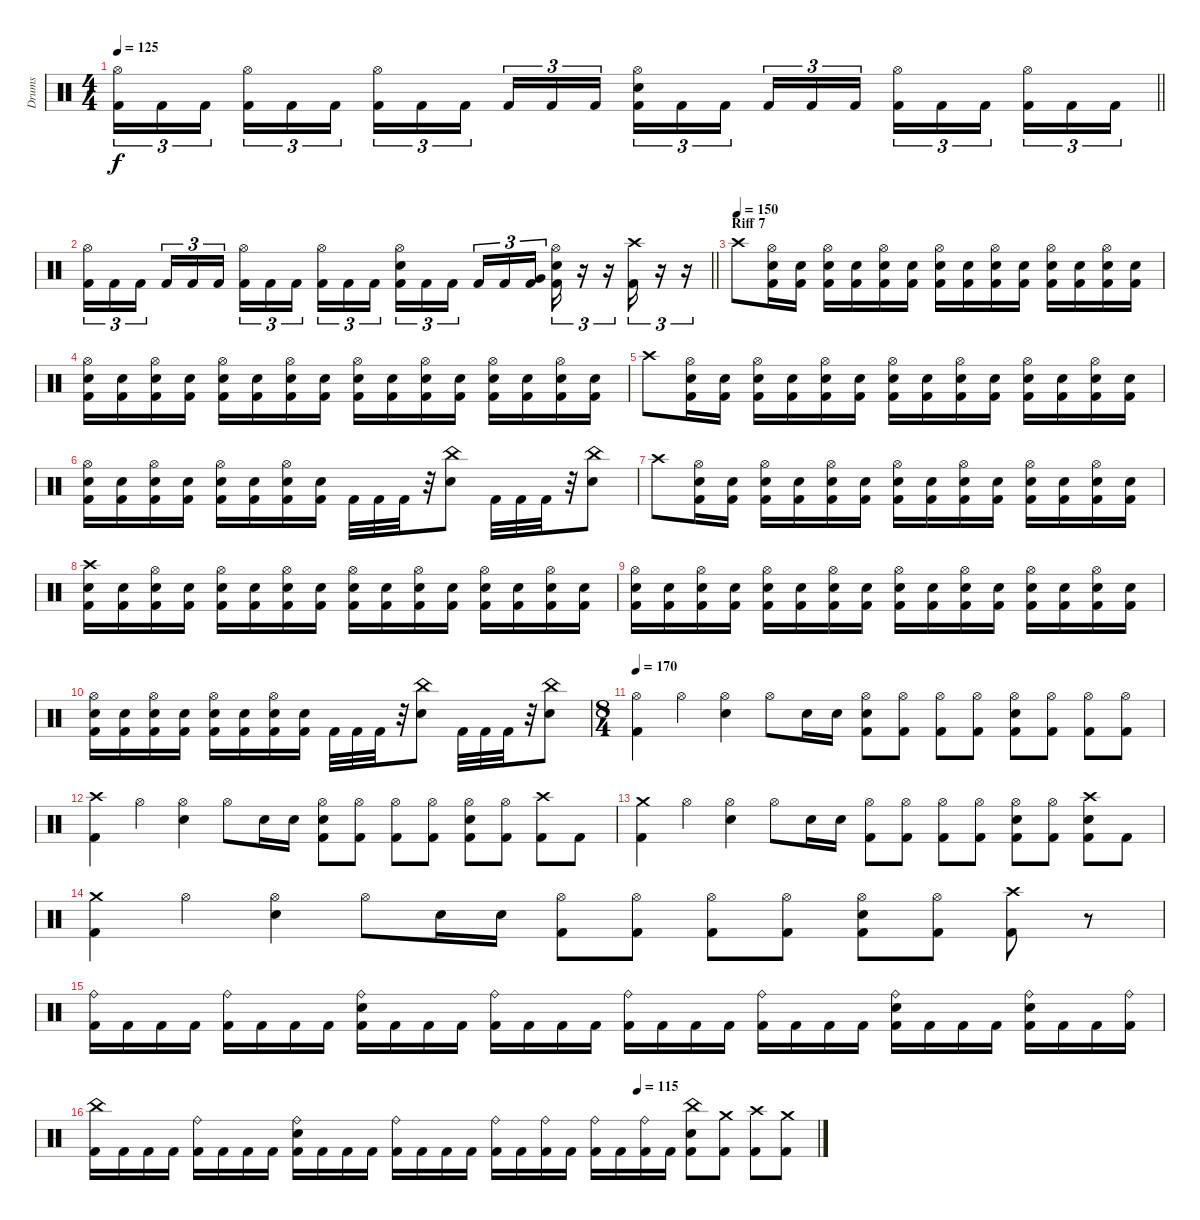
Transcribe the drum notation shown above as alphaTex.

\track ("Drums" "Drums") {instrument percussion}
\staff {score}
\articulation defaults
\ts (4 4)
\tempo 125
\clef neutral
\barLineRight lightlight
\ks c
("Hi-Hat (open)" "Kick (hit) 2").16{tu (3 2) dy f} "Kick (hit) 2".16{tu (3 2)} "Kick (hit) 2".16{tu (3 2) beam splitsecondary} ("Hi-Hat (open)" "Kick (hit) 2").16{tu (3 2)} "Kick (hit) 2".16{tu (3 2)} "Kick (hit) 2".16{tu (3 2)} ("Hi-Hat (open)" "Kick (hit) 2").16{tu (3 2)} "Kick (hit) 2".16{tu (3 2)} "Kick (hit) 2".16{tu (3 2) beam splitsecondary} "Kick (hit) 2".16{tu (3 2)} "Kick (hit) 2".16{tu (3 2)} "Kick (hit) 2".16{tu (3 2)} ("Hi-Hat (open)" "Snare (hit) 2" "Kick (hit) 2").16{tu (3 2)} "Kick (hit) 2".16{tu (3 2)} "Kick (hit) 2".16{tu (3 2) beam splitsecondary} "Kick (hit) 2".16{tu (3 2)} "Kick (hit) 2".16{tu (3 2)} "Kick (hit) 2".16{tu (3 2)} ("Hi-Hat (open)" "Kick (hit) 2").16{tu (3 2)} "Kick (hit) 2".16{tu (3 2)} "Kick (hit) 2".16{tu (3 2) beam splitsecondary} ("Hi-Hat (open)" "Kick (hit) 2").16{tu (3 2)} "Kick (hit) 2".16{tu (3 2)} "Kick (hit) 2".16{tu (3 2)} |
\barLineRight lightlight
("Hi-Hat (open)" "Kick (hit) 2").16{tu (3 2)} "Kick (hit) 2".16{tu (3 2)} "Kick (hit) 2".16{tu (3 2) beam splitsecondary} "Kick (hit) 2".16{tu (3 2)} "Kick (hit) 2".16{tu (3 2)} "Kick (hit) 2".16{tu (3 2)} ("Hi-Hat (open)" "Kick (hit) 2").16{tu (3 2)} "Kick (hit) 2".16{tu (3 2)} "Kick (hit) 2".16{tu (3 2) beam splitsecondary} ("Hi-Hat (open)" "Kick (hit) 2").16{tu (3 2)} "Kick (hit) 2".16{tu (3 2)} "Kick (hit) 2".16{tu (3 2)} ("Hi-Hat (open)" "Snare (hit) 2" "Kick (hit) 2").16{tu (3 2)} "Kick (hit) 2".16{tu (3 2)} "Kick (hit) 2".16{tu (3 2) beam splitsecondary} "Kick (hit) 2".16{tu (3 2)} "Kick (hit) 2".16{tu (3 2)} ("Very Low Tom (hit)" "Kick (hit) 2").16{tu (3 2)} ("Hi-Hat (open)" "Snare (hit) 2" "Kick (hit) 2").16{tu (3 2)} r.16{tu (3 2)} r.16{tu (3 2)} ("Crash high (hit)" "Kick (hit) 2").16{tu (3 2)} r.16{tu (3 2)} r.16{tu (3 2)} |
\section ("" "Riff 7")
\tempo (150)
"Crash high (hit)".8 ("Hi-Hat (open)" "Snare (hit) 2" "Kick (hit) 2").16 ("Snare (hit) 2" "Kick (hit) 2").16 ("Hi-Hat (open)" "Snare (hit) 2" "Kick (hit) 2").16 ("Snare (hit) 2" "Kick (hit) 2").16 ("Hi-Hat (open)" "Snare (hit) 2" "Kick (hit) 2").16 ("Snare (hit) 2" "Kick (hit) 2").16 ("Hi-Hat (open)" "Snare (hit) 2" "Kick (hit) 2").16 ("Snare (hit) 2" "Kick (hit) 2").16 ("Hi-Hat (open)" "Snare (hit) 2" "Kick (hit) 2").16 ("Snare (hit) 2" "Kick (hit) 2").16 ("Hi-Hat (open)" "Snare (hit) 2" "Kick (hit) 2").16 ("Snare (hit) 2" "Kick (hit) 2").16 ("Hi-Hat (open)" "Snare (hit) 2" "Kick (hit) 2").16 ("Snare (hit) 2" "Kick (hit) 2").16 |
("Hi-Hat (open)" "Snare (hit) 2" "Kick (hit) 2").16 ("Snare (hit) 2" "Kick (hit) 2").16 ("Hi-Hat (open)" "Snare (hit) 2" "Kick (hit) 2").16 ("Snare (hit) 2" "Kick (hit) 2").16 ("Hi-Hat (open)" "Snare (hit) 2" "Kick (hit) 2").16 ("Snare (hit) 2" "Kick (hit) 2").16 ("Hi-Hat (open)" "Snare (hit) 2" "Kick (hit) 2").16 ("Snare (hit) 2" "Kick (hit) 2").16 ("Hi-Hat (open)" "Snare (hit) 2" "Kick (hit) 2").16 ("Snare (hit) 2" "Kick (hit) 2").16 ("Hi-Hat (open)" "Snare (hit) 2" "Kick (hit) 2").16 ("Snare (hit) 2" "Kick (hit) 2").16 ("Hi-Hat (open)" "Snare (hit) 2" "Kick (hit) 2").16 ("Snare (hit) 2" "Kick (hit) 2").16 ("Hi-Hat (open)" "Snare (hit) 2" "Kick (hit) 2").16 ("Snare (hit) 2" "Kick (hit) 2").16 |
"Crash high (hit)".8 ("Hi-Hat (open)" "Snare (hit) 2" "Kick (hit) 2").16 ("Snare (hit) 2" "Kick (hit) 2").16 ("Hi-Hat (open)" "Snare (hit) 2" "Kick (hit) 2").16 ("Snare (hit) 2" "Kick (hit) 2").16 ("Hi-Hat (open)" "Snare (hit) 2" "Kick (hit) 2").16 ("Snare (hit) 2" "Kick (hit) 2").16 ("Hi-Hat (open)" "Snare (hit) 2" "Kick (hit) 2").16 ("Snare (hit) 2" "Kick (hit) 2").16 ("Hi-Hat (open)" "Snare (hit) 2" "Kick (hit) 2").16 ("Snare (hit) 2" "Kick (hit) 2").16 ("Hi-Hat (open)" "Snare (hit) 2" "Kick (hit) 2").16 ("Snare (hit) 2" "Kick (hit) 2").16 ("Hi-Hat (open)" "Snare (hit) 2" "Kick (hit) 2").16 ("Snare (hit) 2" "Kick (hit) 2").16 |
("Hi-Hat (open)" "Snare (hit) 2" "Kick (hit) 2").16 ("Snare (hit) 2" "Kick (hit) 2").16 ("Hi-Hat (open)" "Snare (hit) 2" "Kick (hit) 2").16 ("Snare (hit) 2" "Kick (hit) 2").16 ("Hi-Hat (open)" "Snare (hit) 2" "Kick (hit) 2").16 ("Snare (hit) 2" "Kick (hit) 2").16 ("Hi-Hat (open)" "Snare (hit) 2" "Kick (hit) 2").16 ("Snare (hit) 2" "Kick (hit) 2").16 "Kick (hit) 2".32 "Kick (hit) 2".32 "Kick (hit) 2".32 r.32 ("China (hit)" "Snare (hit) 2").8 "Kick (hit) 2".32 "Kick (hit) 2".32 "Kick (hit) 2".32 r.32 ("China (hit)" "Snare (hit) 2").8 |
"Crash high (hit)".8 ("Hi-Hat (open)" "Snare (hit) 2" "Kick (hit) 2").16 ("Snare (hit) 2" "Kick (hit) 2").16 ("Hi-Hat (open)" "Snare (hit) 2" "Kick (hit) 2").16 ("Snare (hit) 2" "Kick (hit) 2").16 ("Hi-Hat (open)" "Snare (hit) 2" "Kick (hit) 2").16 ("Snare (hit) 2" "Kick (hit) 2").16 ("Hi-Hat (open)" "Snare (hit) 2" "Kick (hit) 2").16 ("Snare (hit) 2" "Kick (hit) 2").16 ("Hi-Hat (open)" "Snare (hit) 2" "Kick (hit) 2").16 ("Snare (hit) 2" "Kick (hit) 2").16 ("Hi-Hat (open)" "Snare (hit) 2" "Kick (hit) 2").16 ("Snare (hit) 2" "Kick (hit) 2").16 ("Hi-Hat (open)" "Snare (hit) 2" "Kick (hit) 2").16 ("Snare (hit) 2" "Kick (hit) 2").16 |
("Crash high (hit)" "Snare (hit) 2" "Kick (hit) 2").16 ("Snare (hit) 2" "Kick (hit) 2").16 ("Hi-Hat (open)" "Snare (hit) 2" "Kick (hit) 2").16 ("Snare (hit) 2" "Kick (hit) 2").16 ("Hi-Hat (open)" "Snare (hit) 2" "Kick (hit) 2").16 ("Snare (hit) 2" "Kick (hit) 2").16 ("Hi-Hat (open)" "Snare (hit) 2" "Kick (hit) 2").16 ("Snare (hit) 2" "Kick (hit) 2").16 ("Hi-Hat (open)" "Snare (hit) 2" "Kick (hit) 2").16 ("Snare (hit) 2" "Kick (hit) 2").16 ("Hi-Hat (open)" "Snare (hit) 2" "Kick (hit) 2").16 ("Snare (hit) 2" "Kick (hit) 2").16 ("Hi-Hat (open)" "Snare (hit) 2" "Kick (hit) 2").16 ("Snare (hit) 2" "Kick (hit) 2").16 ("Hi-Hat (open)" "Snare (hit) 2" "Kick (hit) 2").16 ("Snare (hit) 2" "Kick (hit) 2").16 |
("Hi-Hat (open)" "Snare (hit) 2" "Kick (hit) 2").16 ("Snare (hit) 2" "Kick (hit) 2").16 ("Hi-Hat (open)" "Snare (hit) 2" "Kick (hit) 2").16 ("Snare (hit) 2" "Kick (hit) 2").16 ("Hi-Hat (open)" "Snare (hit) 2" "Kick (hit) 2").16 ("Snare (hit) 2" "Kick (hit) 2").16 ("Hi-Hat (open)" "Snare (hit) 2" "Kick (hit) 2").16 ("Snare (hit) 2" "Kick (hit) 2").16 ("Hi-Hat (open)" "Snare (hit) 2" "Kick (hit) 2").16 ("Snare (hit) 2" "Kick (hit) 2").16 ("Hi-Hat (open)" "Snare (hit) 2" "Kick (hit) 2").16 ("Snare (hit) 2" "Kick (hit) 2").16 ("Hi-Hat (open)" "Snare (hit) 2" "Kick (hit) 2").16 ("Snare (hit) 2" "Kick (hit) 2").16 ("Hi-Hat (open)" "Snare (hit) 2" "Kick (hit) 2").16 ("Snare (hit) 2" "Kick (hit) 2").16 |
("Hi-Hat (open)" "Snare (hit) 2" "Kick (hit) 2").16 ("Snare (hit) 2" "Kick (hit) 2").16 ("Hi-Hat (open)" "Snare (hit) 2" "Kick (hit) 2").16 ("Snare (hit) 2" "Kick (hit) 2").16 ("Hi-Hat (open)" "Snare (hit) 2" "Kick (hit) 2").16 ("Snare (hit) 2" "Kick (hit) 2").16 ("Hi-Hat (open)" "Snare (hit) 2" "Kick (hit) 2").16 ("Snare (hit) 2" "Kick (hit) 2").16 "Kick (hit) 2".32 "Kick (hit) 2".32 "Kick (hit) 2".32 r.32 ("China (hit)" "Snare (hit) 2").8 "Kick (hit) 2".32 "Kick (hit) 2".32 "Kick (hit) 2".32 r.32 ("China (hit)" "Snare (hit) 2").8 |
\ts (8 4)
\tempo 170
("Hi-Hat (open)" "Kick (hit) 2").4 "Hi-Hat (open)".4 ("Hi-Hat (open)" "Snare (hit) 2").4 "Hi-Hat (open)".8 "Snare (hit) 2".16 "Snare (hit) 2".16 ("Hi-Hat (open)" "Snare (hit) 2" "Kick (hit) 2").8 ("Hi-Hat (open)" "Kick (hit) 2").8 ("Hi-Hat (open)" "Kick (hit) 2").8 ("Hi-Hat (open)" "Kick (hit) 2").8 ("Hi-Hat (open)" "Snare (hit) 2" "Kick (hit) 2").8 ("Hi-Hat (open)" "Kick (hit) 2").8 ("Hi-Hat (open)" "Kick (hit) 2").8 ("Hi-Hat (open)" "Kick (hit) 2").8 |
("Crash high (hit)" "Kick (hit) 2").4 "Hi-Hat (open)".4 ("Hi-Hat (open)" "Snare (hit) 2").4 "Hi-Hat (open)".8 "Snare (hit) 2".16 "Snare (hit) 2".16 ("Hi-Hat (open)" "Snare (hit) 2" "Kick (hit) 2").8 ("Hi-Hat (open)" "Kick (hit) 2").8 ("Hi-Hat (open)" "Kick (hit) 2").8 ("Hi-Hat (open)" "Kick (hit) 2").8 ("Hi-Hat (open)" "Snare (hit) 2" "Kick (hit) 2").8 ("Hi-Hat (open)" "Kick (hit) 2").8 ("Crash high (hit)" "Kick (hit) 2").8 "Kick (hit) 2".8 |
("Crash medium (hit)" "Kick (hit) 2").4 "Hi-Hat (open)".4 ("Hi-Hat (open)" "Snare (hit) 2").4 "Hi-Hat (open)".8 "Snare (hit) 2".16 "Snare (hit) 2".16 ("Hi-Hat (open)" "Kick (hit) 2").8 ("Hi-Hat (open)" "Kick (hit) 2").8 ("Hi-Hat (open)" "Kick (hit) 2").8 ("Hi-Hat (open)" "Kick (hit) 2").8 ("Hi-Hat (open)" "Snare (hit) 2" "Kick (hit) 2").8 ("Hi-Hat (open)" "Kick (hit) 2").8 ("Crash high (hit)" "Snare (hit) 2" "Kick (hit) 2").8 "Kick (hit) 2".8 |
("Crash medium (hit)" "Kick (hit) 2").4 "Hi-Hat (open)".4 ("Hi-Hat (open)" "Snare (hit) 2").4 "Hi-Hat (open)".8 "Snare (hit) 2".16 "Snare (hit) 2".16 ("Hi-Hat (open)" "Kick (hit) 2").8 ("Hi-Hat (open)" "Kick (hit) 2").8 ("Hi-Hat (open)" "Kick (hit) 2").8 ("Hi-Hat (open)" "Kick (hit) 2").8 ("Hi-Hat (open)" "Snare (hit) 2" "Kick (hit) 2").8 ("Hi-Hat (open)" "Kick (hit) 2").8 ("Crash high (hit)" "Kick (hit) 2").8 r.8 |
("Ride (bell)" "Kick (hit) 2").16 "Kick (hit) 2".16 "Kick (hit) 2".16 "Kick (hit) 2".16 ("Ride (bell)" "Kick (hit) 2").16 "Kick (hit) 2".16 "Kick (hit) 2".16 "Kick (hit) 2".16 ("Ride (bell)" "Snare (hit) 2" "Kick (hit) 2").16 "Kick (hit) 2".16 "Kick (hit) 2".16 "Kick (hit) 2".16 ("Ride (bell)" "Kick (hit) 2").16 "Kick (hit) 2".16 "Kick (hit) 2".16 "Kick (hit) 2".16 ("Ride (bell)" "Kick (hit) 2").16 "Kick (hit) 2".16 "Kick (hit) 2".16 "Kick (hit) 2".16 ("Ride (bell)" "Kick (hit) 2").16 "Kick (hit) 2".16 "Kick (hit) 2".16 "Kick (hit) 2".16 ("Ride (bell)" "Snare (hit) 2" "Kick (hit) 2").16 "Kick (hit) 2".16 "Kick (hit) 2".16 "Kick (hit) 2".16 ("Ride (bell)" "Snare (hit) 2" "Kick (hit) 2").16 "Kick (hit) 2".16 "Kick (hit) 2".16 ("Ride (bell)" "Kick (hit) 2").16 |
\tempo (115 0.75)
("China (hit)" "Kick (hit) 2").16 "Kick (hit) 2".16 "Kick (hit) 2".16 "Kick (hit) 2".16 ("Ride (bell)" "Kick (hit) 2").16 "Kick (hit) 2".16 "Kick (hit) 2".16 "Kick (hit) 2".16 ("Ride (bell)" "Snare (hit) 2" "Kick (hit) 2").16 "Kick (hit) 2".16 "Kick (hit) 2".16 "Kick (hit) 2".16 ("Ride (bell)" "Kick (hit) 2").16 "Kick (hit) 2".16 "Kick (hit) 2".16 "Kick (hit) 2".16 ("Ride (bell)" "Kick (hit) 2").16 "Kick (hit) 2".16 ("Ride (bell)" "Kick (hit) 2").16 "Kick (hit) 2".16 ("Ride (bell)" "Kick (hit) 2").16 "Kick (hit) 2".16 ("Ride (bell)" "Kick (hit) 2").16 "Kick (hit) 2".16 ("China (hit)" "Snare (hit) 2" "Kick (hit) 2").8 ("Crash medium (hit)" "Kick (hit) 2").8 ("Crash high (hit)" "Kick (hit) 2").8 ("Crash medium (hit)" "Kick (hit) 2").8
